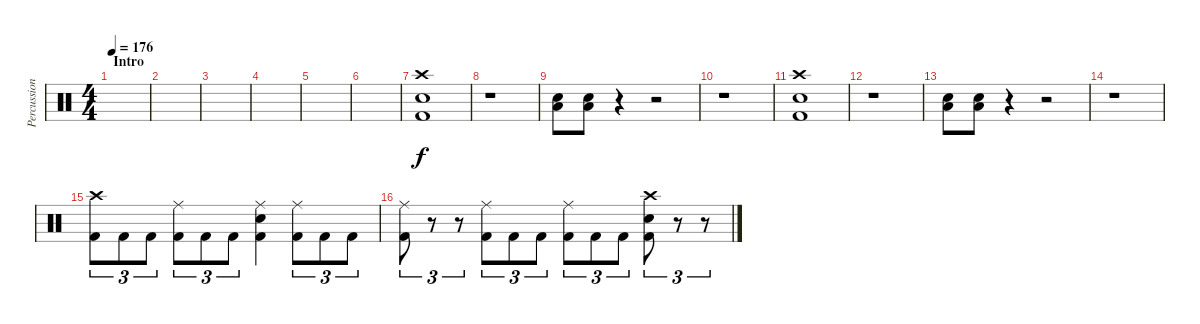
\track ("Percussion" "Percussion") {instrument percussion}
\staff {score}
\articulation defaults
\ts (4 4)
\section ("" "Intro")
\tempo 176
\clef neutral
\ks c
|
|
|
|
|
|
("Crash high (hit)" "Snare (hit) 2" "Kick (hit) 2").1 |
r.1 |
("Snare (hit) 2" "Low Floor Tom (hit)").8 ("Snare (hit) 2" "Low Floor Tom (hit)").8 r.4 r.2 |
r.1 |
("Crash high (hit)" "Snare (hit) 2" "Kick (hit) 2").1 |
r.1 |
("Snare (hit) 2" "Low Floor Tom (hit)").8 ("Snare (hit) 2" "Low Floor Tom (hit)").8 r.4 r.2 |
r.1 |
("Crash high (hit)" "Kick (hit) 2").8{tu (3 2)} "Kick (hit) 2".8{tu (3 2)} "Kick (hit) 2".8{tu (3 2)} ("Ride (middle)" "Kick (hit) 2").8{tu (3 2)} "Kick (hit) 2".8{tu (3 2)} "Kick (hit) 2".8{tu (3 2)} ("Ride (middle)" "Snare (hit) 2" "Kick (hit) 2").4 ("Ride (middle)" "Kick (hit) 2").8{tu (3 2)} "Kick (hit) 2".8{tu (3 2)} "Kick (hit) 2".8{tu (3 2)} |
("Ride (middle)" "Kick (hit) 2").8{tu (3 2)} r.8{tu (3 2)} r.8{tu (3 2)} ("Ride (middle)" "Kick (hit) 2").8{tu (3 2)} "Kick (hit) 2".8{tu (3 2)} "Kick (hit) 2".8{tu (3 2)} ("Ride (middle)" "Kick (hit) 2").8{tu (3 2)} "Kick (hit) 2".8{tu (3 2)} "Kick (hit) 2".8{tu (3 2)} ("Crash high (hit)" "Snare (hit) 2" "Kick (hit) 2").8{tu (3 2)} r.8{tu (3 2)} r.8{tu (3 2)}
